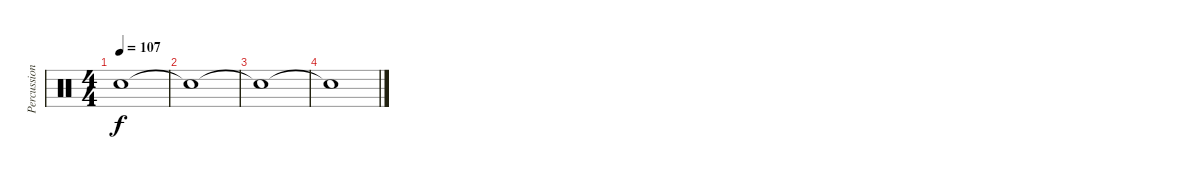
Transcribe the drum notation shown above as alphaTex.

\track ("Percussion" "Percussion") {instrument percussion}
\staff {score}
\articulation defaults
\ts (4 4)
\tempo 107
\clef neutral
\ks c "Snare (hit)"{t}.1{dy f}
|
"Snare (hit)"{t}.1 |
"Snare (hit)"{t}.1 |
"Snare (hit)"{t}.1
